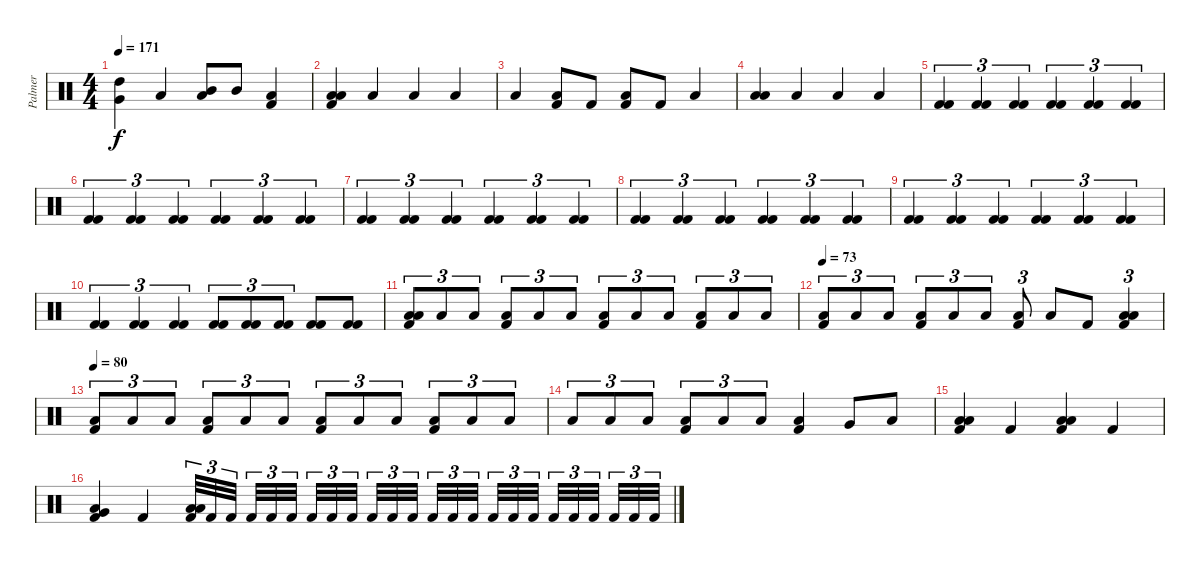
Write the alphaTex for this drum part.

\track ("Palmer" "Palmer") {instrument percussion}
\staff {score}
\articulation defaults
\ts (4 4)
\tempo 171
\clef neutral
\ks c
("Very Low Tom (hit)" "High Tom (hit)").4{dy f} "Low Floor Tom (hit)".4 ("Low Floor Tom (hit)" "Mid Tom (hit)").8 "Mid Tom (hit)".8 ("Low Floor Tom (hit)" "Kick (hit) 2").4 |
("Low Floor Tom (hit)" "Low Tom (hit)" "Kick (hit) 2").4 "Low Floor Tom (hit)".4 "Low Floor Tom (hit)".4 "Low Floor Tom (hit)".4 |
"Low Floor Tom (hit)".4 ("Low Floor Tom (hit)" "Kick (hit) 2").8 "Kick (hit) 2".8 ("Low Floor Tom (hit)" "Kick (hit) 2").8 "Kick (hit) 2".8 "Low Floor Tom (hit)".4 |
("Low Floor Tom (hit)" "Low Tom (hit)").4 "Low Floor Tom (hit)".4 "Low Floor Tom (hit)".4 "Low Floor Tom (hit)".4 |
("Kick (hit) 2" "Kick (hit) 2").4{tu (3 2)} ("Kick (hit) 2" "Kick (hit) 2").4{tu (3 2)} ("Kick (hit) 2" "Kick (hit) 2").4{tu (3 2)} ("Kick (hit) 2" "Kick (hit) 2").4{tu (3 2)} ("Kick (hit) 2" "Kick (hit) 2").4{tu (3 2)} ("Kick (hit) 2" "Kick (hit) 2").4{tu (3 2)} |
("Kick (hit) 2" "Kick (hit) 2").4{tu (3 2)} ("Kick (hit) 2" "Kick (hit) 2").4{tu (3 2)} ("Kick (hit) 2" "Kick (hit) 2").4{tu (3 2)} ("Kick (hit) 2" "Kick (hit) 2").4{tu (3 2)} ("Kick (hit) 2" "Kick (hit) 2").4{tu (3 2)} ("Kick (hit) 2" "Kick (hit) 2").4{tu (3 2)} |
("Kick (hit) 2" "Kick (hit) 2").4{tu (3 2)} ("Kick (hit) 2" "Kick (hit) 2").4{tu (3 2)} ("Kick (hit) 2" "Kick (hit) 2").4{tu (3 2)} ("Kick (hit) 2" "Kick (hit) 2").4{tu (3 2)} ("Kick (hit) 2" "Kick (hit) 2").4{tu (3 2)} ("Kick (hit) 2" "Kick (hit) 2").4{tu (3 2)} |
("Kick (hit) 2" "Kick (hit) 2").4{tu (3 2)} ("Kick (hit) 2" "Kick (hit) 2").4{tu (3 2)} ("Kick (hit) 2" "Kick (hit) 2").4{tu (3 2)} ("Kick (hit) 2" "Kick (hit) 2").4{tu (3 2)} ("Kick (hit) 2" "Kick (hit) 2").4{tu (3 2)} ("Kick (hit) 2" "Kick (hit) 2").4{tu (3 2)} |
("Kick (hit) 2" "Kick (hit) 2").4{tu (3 2)} ("Kick (hit) 2" "Kick (hit) 2").4{tu (3 2)} ("Kick (hit) 2" "Kick (hit) 2").4{tu (3 2)} ("Kick (hit) 2" "Kick (hit) 2").4{tu (3 2)} ("Kick (hit) 2" "Kick (hit) 2").4{tu (3 2)} ("Kick (hit) 2" "Kick (hit) 2").4{tu (3 2)} |
("Kick (hit) 2" "Kick (hit) 2").4{tu (3 2)} ("Kick (hit) 2" "Kick (hit) 2").4{tu (3 2)} ("Kick (hit) 2" "Kick (hit) 2").4{tu (3 2)} ("Kick (hit) 2" "Kick (hit) 2").8{tu (3 2)} ("Kick (hit) 2" "Kick (hit) 2").8{tu (3 2)} ("Kick (hit) 2" "Kick (hit) 2").8{tu (3 2)} ("Kick (hit) 2" "Kick (hit) 2").8 ("Kick (hit) 2" "Kick (hit) 2").8 |
("Low Floor Tom (hit)" "Low Tom (hit)" "Kick (hit) 2").8{tu (3 2)} "Low Floor Tom (hit)".8{tu (3 2)} "Low Floor Tom (hit)".8{tu (3 2)} ("Low Floor Tom (hit)" "Kick (hit) 2").8{tu (3 2)} "Low Floor Tom (hit)".8{tu (3 2)} "Low Floor Tom (hit)".8{tu (3 2)} ("Low Floor Tom (hit)" "Kick (hit) 2").8{tu (3 2)} "Low Floor Tom (hit)".8{tu (3 2)} "Low Floor Tom (hit)".8{tu (3 2)} ("Low Floor Tom (hit)" "Kick (hit) 2").8{tu (3 2)} "Low Floor Tom (hit)".8{tu (3 2)} "Low Floor Tom (hit)".8{tu (3 2)} |
\tempo 73
("Low Floor Tom (hit)" "Kick (hit) 2").8{tu (3 2)} "Low Floor Tom (hit)".8{tu (3 2)} "Low Floor Tom (hit)".8{tu (3 2)} ("Low Floor Tom (hit)" "Kick (hit) 2").8{tu (3 2)} "Low Floor Tom (hit)".8{tu (3 2)} "Low Floor Tom (hit)".8{tu (3 2)} ("Low Floor Tom (hit)" "Kick (hit) 2").8{tu (3 2)} "Low Floor Tom (hit)".8 "Kick (hit) 2".8 ("Low Floor Tom (hit)" "Low Tom (hit)" "Kick (hit) 2").4{tu (3 2)} |
\tempo 80
("Low Floor Tom (hit)" "Kick (hit) 2").8{tu (3 2)} "Low Floor Tom (hit)".8{tu (3 2)} "Low Floor Tom (hit)".8{tu (3 2)} ("Low Floor Tom (hit)" "Kick (hit) 2").8{tu (3 2)} "Low Floor Tom (hit)".8{tu (3 2)} "Low Floor Tom (hit)".8{tu (3 2)} ("Low Floor Tom (hit)" "Kick (hit) 2").8{tu (3 2)} "Low Floor Tom (hit)".8{tu (3 2)} "Low Floor Tom (hit)".8{tu (3 2)} ("Low Floor Tom (hit)" "Kick (hit) 2").8{tu (3 2)} "Low Floor Tom (hit)".8{tu (3 2)} "Low Floor Tom (hit)".8{tu (3 2)} |
"Low Floor Tom (hit)".8{tu (3 2)} "Low Floor Tom (hit)".8{tu (3 2)} "Low Floor Tom (hit)".8{tu (3 2)} ("Low Floor Tom (hit)" "Kick (hit) 2").8{tu (3 2)} "Low Floor Tom (hit)".8{tu (3 2)} "Low Floor Tom (hit)".8{tu (3 2)} ("Low Floor Tom (hit)" "Kick (hit) 2").4 "Very Low Tom (hit)".8 "Low Floor Tom (hit)".8 |
("Low Floor Tom (hit)" "Low Tom (hit)" "Kick (hit) 2").4 "Kick (hit) 2".4 ("Low Floor Tom (hit)" "Low Tom (hit)" "Kick (hit) 2").4 "Kick (hit) 2".4 |
("Very Low Tom (hit)" "Low Floor Tom (hit)" "Kick (hit) 2").4 "Kick (hit) 2".4 ("Low Floor Tom (hit)" "Low Tom (hit)" "Kick (hit) 2").32{tu (3 2)} "Kick (hit) 2".32{tu (3 2)} "Kick (hit) 2".32{tu (3 2)} "Kick (hit) 2".32{tu (3 2)} "Kick (hit) 2".32{tu (3 2)} "Kick (hit) 2".32{tu (3 2)} "Kick (hit) 2".32{tu (3 2)} "Kick (hit) 2".32{tu (3 2)} "Kick (hit) 2".32{tu (3 2)} "Kick (hit) 2".32{tu (3 2)} "Kick (hit) 2".32{tu (3 2)} "Kick (hit) 2".32{tu (3 2)} "Kick (hit) 2".32{tu (3 2)} "Kick (hit) 2".32{tu (3 2)} "Kick (hit) 2".32{tu (3 2)} "Kick (hit) 2".32{tu (3 2)} "Kick (hit) 2".32{tu (3 2)} "Kick (hit) 2".32{tu (3 2)} "Kick (hit) 2".32{tu (3 2)} "Kick (hit) 2".32{tu (3 2)} "Kick (hit) 2".32{tu (3 2)} "Kick (hit) 2".32{tu (3 2)} "Kick (hit) 2".32{tu (3 2)} "Kick (hit) 2".32{tu (3 2)}
